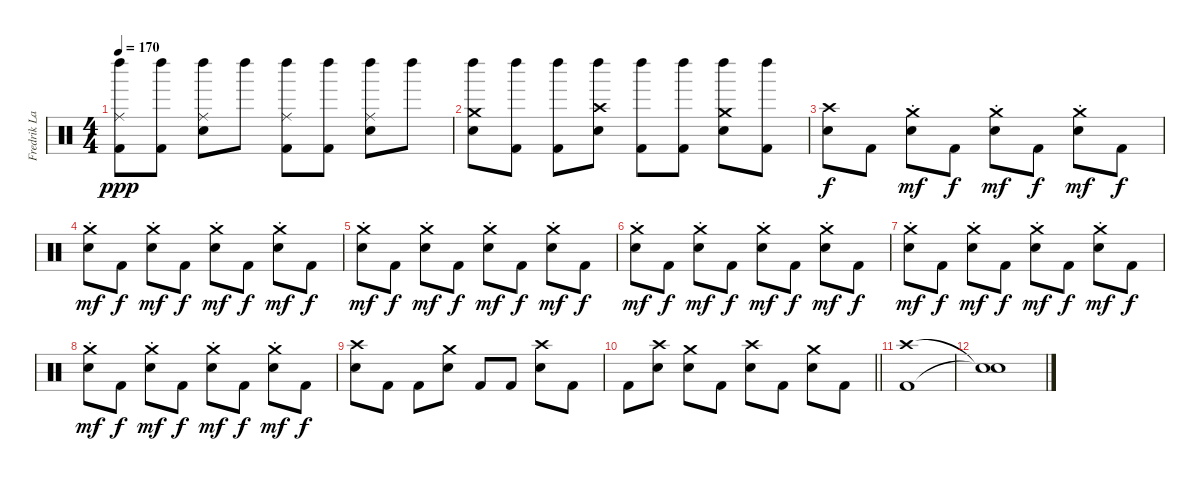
\track ("Fredrik Larzon - Percussion" "Fredrik La") {instrument percussion}
\staff {score}
\articulation defaults
\ts (4 4)
\tempo 170
\clef neutral
\ks c
("Ride (middle)" "Left Maraca (hit)" "Kick (hit) 2").8{dy ppp} ("Left Maraca (hit)" "Kick (hit) 2").8 ("Ride (middle)" "Left Maraca (hit)" "Electric Snare (hit)").8 "Left Maraca (hit)".8 ("Ride (middle)" "Left Maraca (hit)" "Kick (hit) 2").8 ("Left Maraca (hit)" "Kick (hit) 2").8 ("Ride (middle)" "Left Maraca (hit)" "Electric Snare (hit)").8 "Left Maraca (hit)".8 |
("Crash medium (hit)" "Left Maraca (hit)" "Electric Snare (hit)").8 ("Left Maraca (hit)" "Kick (hit) 2").8 ("Left Maraca (hit)" "Kick (hit) 2").8 ("Crash high (hit)" "Left Maraca (hit)" "Electric Snare (hit)").8 ("Left Maraca (hit)" "Kick (hit) 2").8 ("Left Maraca (hit)" "Kick (hit) 2").8 ("Crash medium (hit)" "Left Maraca (hit)" "Electric Snare (hit)").8 ("Left Maraca (hit)" "Kick (hit) 2").8 |
("Crash high (hit)" "Electric Snare (hit)").8{dy f} "Kick (hit) 2".8 ("Crash medium (hit)"{st} "Electric Snare (hit)").8{dy mf} "Kick (hit) 2".8{dy f} ("Crash medium (hit)"{st} "Electric Snare (hit)").8{dy mf} "Kick (hit) 2".8{dy f} ("Crash medium (hit)"{st} "Electric Snare (hit)").8{dy mf} "Kick (hit) 2".8{dy f} |
("Crash medium (hit)"{st} "Electric Snare (hit)").8{dy mf} "Kick (hit) 2".8{dy f} ("Crash medium (hit)"{st} "Electric Snare (hit)").8{dy mf} "Kick (hit) 2".8{dy f} ("Crash medium (hit)"{st} "Electric Snare (hit)").8{dy mf} "Kick (hit) 2".8{dy f} ("Crash medium (hit)"{st} "Electric Snare (hit)").8{dy mf} "Kick (hit) 2".8{dy f} |
("Crash medium (hit)"{st} "Electric Snare (hit)").8{dy mf} "Kick (hit) 2".8{dy f} ("Crash medium (hit)"{st} "Electric Snare (hit)").8{dy mf} "Kick (hit) 2".8{dy f} ("Crash medium (hit)"{st} "Electric Snare (hit)").8{dy mf} "Kick (hit) 2".8{dy f} ("Crash medium (hit)"{st} "Electric Snare (hit)").8{dy mf} "Kick (hit) 2".8{dy f} |
("Crash medium (hit)"{st} "Electric Snare (hit)").8{dy mf} "Kick (hit) 2".8{dy f} ("Crash medium (hit)"{st} "Electric Snare (hit)").8{dy mf} "Kick (hit) 2".8{dy f} ("Crash medium (hit)"{st} "Electric Snare (hit)").8{dy mf} "Kick (hit) 2".8{dy f} ("Crash medium (hit)"{st} "Electric Snare (hit)").8{dy mf} "Kick (hit) 2".8{dy f} |
("Crash medium (hit)"{st} "Electric Snare (hit)").8{dy mf} "Kick (hit) 2".8{dy f} ("Crash medium (hit)"{st} "Electric Snare (hit)").8{dy mf} "Kick (hit) 2".8{dy f} ("Crash medium (hit)"{st} "Electric Snare (hit)").8{dy mf} "Kick (hit) 2".8{dy f} ("Crash medium (hit)"{st} "Electric Snare (hit)").8{dy mf} "Kick (hit) 2".8{dy f} |
("Crash medium (hit)"{st} "Electric Snare (hit)").8{dy mf} "Kick (hit) 2".8{dy f} ("Crash medium (hit)"{st} "Electric Snare (hit)").8{dy mf} "Kick (hit) 2".8{dy f} ("Crash medium (hit)"{st} "Electric Snare (hit)").8{dy mf} "Kick (hit) 2".8{dy f} ("Crash medium (hit)"{st} "Electric Snare (hit)").8{dy mf} "Kick (hit) 2".8{dy f} |
("Crash high (hit)" "Electric Snare (hit)").8 "Kick (hit) 2".8 "Kick (hit) 2".8 ("Crash medium (hit)" "Electric Snare (hit)").8 "Kick (hit) 2".8 "Kick (hit) 2".8 ("Crash high (hit)" "Electric Snare (hit)").8 "Kick (hit) 2".8 |
\barLineRight lightlight "Kick (hit) 2".8
("Crash high (hit)" "Electric Snare (hit)").8 ("Crash medium (hit)" "Electric Snare (hit)").8 "Kick (hit) 2".8 ("Crash high (hit)" "Electric Snare (hit)").8 "Kick (hit) 2".8 ("Crash medium (hit)" "Electric Snare (hit)").8 "Kick (hit) 2".8 |
("Crash high (hit)" "Kick (hit) 2").1 |
("Snare (hit)"{t} "Snare (hit)"{t}).1
